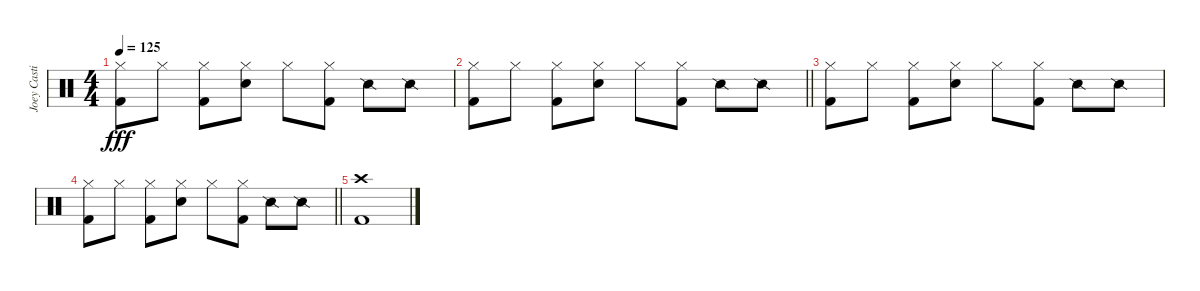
\track ("Joey Castillo" "Joey Casti") {instrument percussion}
\staff {score}
\articulation defaults
\ts (4 4)
\tempo 125
\clef neutral
\ks c
("Hi-Hat (closed)" "Kick (hit) 2").8{dy fff} "Hi-Hat (closed)".8 ("Hi-Hat (closed)" "Kick (hit) 2").8 ("Hi-Hat (closed)" "Electric Snare (hit)").8 "Hi-Hat (closed)".8 ("Hi-Hat (closed)" "Kick (hit) 2").8 "Snare (side stick) 2".8 "Snare (side stick) 2".8 |
\barLineRight lightlight
("Hi-Hat (closed)" "Kick (hit) 2").8 "Hi-Hat (closed)".8 ("Hi-Hat (closed)" "Kick (hit) 2").8 ("Hi-Hat (closed)" "Electric Snare (hit)").8 "Hi-Hat (closed)".8 ("Hi-Hat (closed)" "Kick (hit) 2").8 "Snare (side stick) 2".8 "Snare (side stick) 2".8 |
("Hi-Hat (closed)" "Kick (hit) 2").8 "Hi-Hat (closed)".8 ("Hi-Hat (closed)" "Kick (hit) 2").8 ("Hi-Hat (closed)" "Electric Snare (hit)").8 "Hi-Hat (closed)".8 ("Hi-Hat (closed)" "Kick (hit) 2").8 "Snare (side stick) 2".8 "Snare (side stick) 2".8 |
\barLineRight lightlight
("Hi-Hat (closed)" "Kick (hit) 2").8 "Hi-Hat (closed)".8 ("Hi-Hat (closed)" "Kick (hit) 2").8 ("Hi-Hat (closed)" "Electric Snare (hit)").8 "Hi-Hat (closed)".8 ("Hi-Hat (closed)" "Kick (hit) 2").8 "Snare (side stick) 2".8 "Snare (side stick) 2".8 |
("Crash high (hit)" "Kick (hit) 2").1
